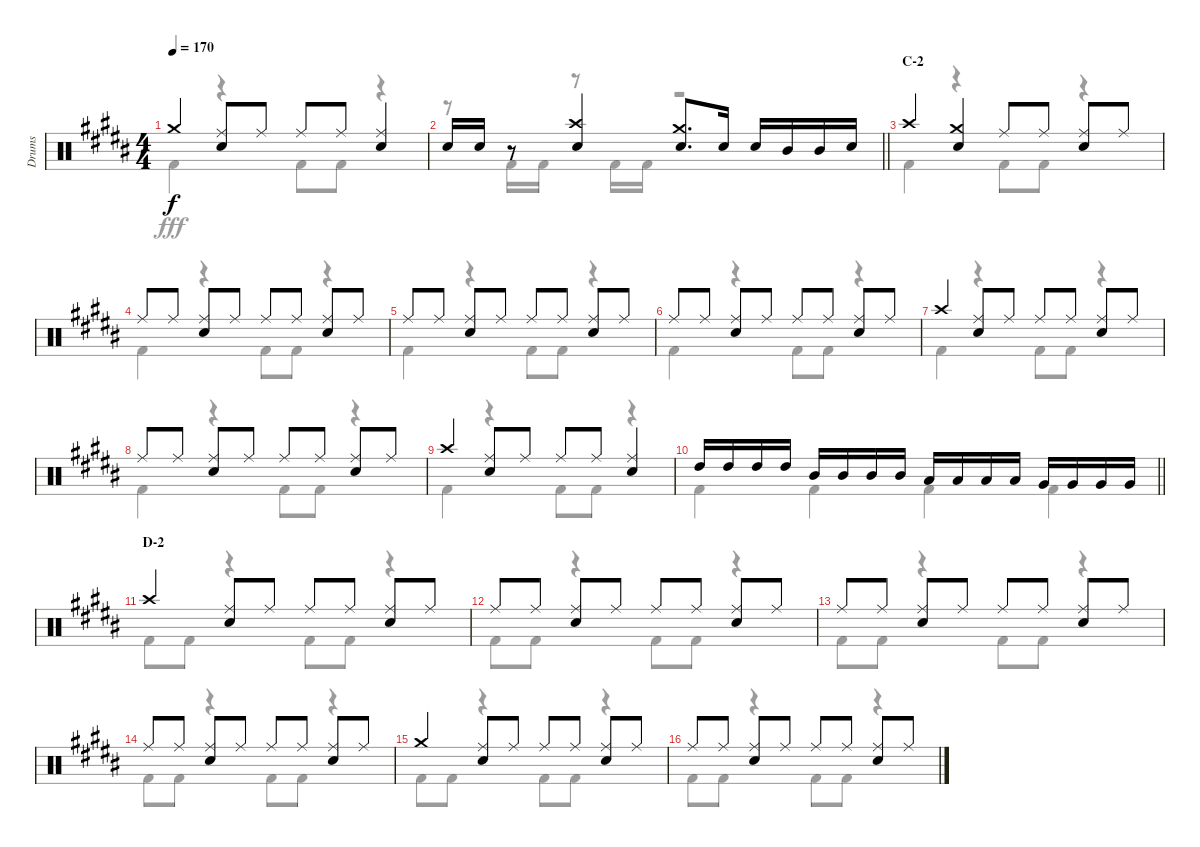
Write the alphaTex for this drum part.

\track ("Drums" "Drums") {instrument percussion}
\staff {score}
\articulation defaults
\voice
\ts (4 4)
\tempo 170
\clef neutral
\ks b "Crash medium (hit)".4{dy f}
("Ride (middle)" "Snare (hit) 2").8 "Ride (middle)".8 "Ride (middle)".8 "Ride (middle)".8 ("Ride (middle)" "Snare (hit) 2").4 |
\barLineRight lightlight "Snare (hit) 2".16 "Snare (hit) 2".16
r.8 ("Crash high (hit)" "Snare (hit) 2").4 ("Crash medium (hit)" "Snare (hit) 2").8{d} "Snare (hit) 2".16 "Snare (hit) 2".16 "Mid Tom (hit)".16 "Mid Tom (hit)".16 "Snare (hit) 2".16 |
\section ("" "C-2")
"Crash high (hit)".4 ("Crash medium (hit)" "Snare (hit) 2").4 "Ride (middle)".8 "Ride (middle)".8 ("Ride (middle)" "Snare (hit) 2").8 "Ride (middle)".8 |
"Ride (middle)".8 "Ride (middle)".8 ("Ride (middle)" "Snare (hit) 2").8 "Ride (middle)".8 "Ride (middle)".8 "Ride (middle)".8 ("Ride (middle)" "Snare (hit) 2").8 "Ride (middle)".8 |
"Ride (middle)".8 "Ride (middle)".8 ("Ride (middle)" "Snare (hit) 2").8 "Ride (middle)".8 "Ride (middle)".8 "Ride (middle)".8 ("Ride (middle)" "Snare (hit) 2").8 "Ride (middle)".8 |
"Ride (middle)".8 "Ride (middle)".8 ("Ride (middle)" "Snare (hit) 2").8 "Ride (middle)".8 "Ride (middle)".8 "Ride (middle)".8 ("Ride (middle)" "Snare (hit) 2").8 "Ride (middle)".8 |
"Crash high (hit)".4 ("Ride (middle)" "Snare (hit) 2").8 "Ride (middle)".8 "Ride (middle)".8 "Ride (middle)".8 ("Ride (middle)" "Snare (hit) 2").8 "Ride (middle)".8 |
"Ride (middle)".8 "Ride (middle)".8 ("Ride (middle)" "Snare (hit) 2").8 "Ride (middle)".8 "Ride (middle)".8 "Ride (middle)".8 ("Ride (middle)" "Snare (hit) 2").8 "Ride (middle)".8 |
"Crash high (hit)".4 ("Ride (middle)" "Snare (hit) 2").8 "Ride (middle)".8 "Ride (middle)".8 "Ride (middle)".8 ("Ride (middle)" "Snare (hit) 2").4 |
\barLineRight lightlight "High Tom (hit)".16 "High Tom (hit)".16 "High Tom (hit)".16 "High Tom (hit)".16 "Mid Tom (hit)".16 "Mid Tom (hit)".16 "Mid Tom (hit)".16 "Mid Tom (hit)".16 "Low Tom (hit)".16 "Low Tom (hit)".16 "Low Tom (hit)".16 "Low Tom (hit)".16 "Very Low Tom (hit)".16 "Very Low Tom (hit)".16 "Very Low Tom (hit)".16 "Very Low Tom (hit)".16
|
\section ("" "D-2")
"Crash high (hit)".4 ("Ride (middle)" "Snare (hit) 2").8 "Ride (middle)".8 "Ride (middle)".8 "Ride (middle)".8 ("Ride (middle)" "Snare (hit) 2").8 "Ride (middle)".8 |
"Ride (middle)".8 "Ride (middle)".8 ("Ride (middle)" "Snare (hit) 2").8 "Ride (middle)".8 "Ride (middle)".8 "Ride (middle)".8 ("Ride (middle)" "Snare (hit) 2").8 "Ride (middle)".8 |
"Ride (middle)".8 "Ride (middle)".8 ("Ride (middle)" "Snare (hit) 2").8 "Ride (middle)".8 "Ride (middle)".8 "Ride (middle)".8 ("Ride (middle)" "Snare (hit) 2").8 "Ride (middle)".8 |
"Ride (middle)".8 "Ride (middle)".8 ("Ride (middle)" "Snare (hit) 2").8 "Ride (middle)".8 "Ride (middle)".8 "Ride (middle)".8 ("Ride (middle)" "Snare (hit) 2").8 "Ride (middle)".8 |
"Crash medium (hit)".4 ("Ride (middle)" "Snare (hit) 2").8 "Ride (middle)".8 "Ride (middle)".8 "Ride (middle)".8 ("Ride (middle)" "Snare (hit) 2").8 "Ride (middle)".8 |
"Ride (middle)".8 "Ride (middle)".8 ("Ride (middle)" "Snare (hit) 2").8 "Ride (middle)".8 "Ride (middle)".8 "Ride (middle)".8 ("Ride (middle)" "Snare (hit) 2").8 "Ride (middle)".8
\voice
\clef neutral
\ottava regular
\simile none
\ks b "Kick (hit) 2".4{dy fff}
r.4 "Kick (hit) 2".8 "Kick (hit) 2".8 r.4 |
\barLineRight lightlight
r.8 "Kick (hit) 2".16 "Kick (hit) 2".16 r.8 "Kick (hit) 2".16 "Kick (hit) 2".16 r.2 |
"Kick (hit) 2".4 r.4 "Kick (hit) 2".8 "Kick (hit) 2".8 r.4 |
"Kick (hit) 2".4 r.4 "Kick (hit) 2".8 "Kick (hit) 2".8 r.4 |
"Kick (hit) 2".4 r.4 "Kick (hit) 2".8 "Kick (hit) 2".8 r.4 |
"Kick (hit) 2".4 r.4 "Kick (hit) 2".8 "Kick (hit) 2".8 r.4 |
"Kick (hit) 2".4 r.4 "Kick (hit) 2".8 "Kick (hit) 2".8 r.4 |
"Kick (hit) 2".4 r.4 "Kick (hit) 2".8 "Kick (hit) 2".8 r.4 |
"Kick (hit) 2".4 r.4 "Kick (hit) 2".8 "Kick (hit) 2".8 r.4 |
\barLineRight lightlight "Kick (hit) 2".4 "Kick (hit) 2".4 "Kick (hit) 2".4 "Kick (hit) 2".4
|
"Kick (hit) 2".8 "Kick (hit) 2".8 r.4 "Kick (hit) 2".8 "Kick (hit) 2".8 r.4 |
"Kick (hit) 2".8 "Kick (hit) 2".8 r.4 "Kick (hit) 2".8 "Kick (hit) 2".8 r.4 |
"Kick (hit) 2".8 "Kick (hit) 2".8 r.4 "Kick (hit) 2".8 "Kick (hit) 2".8 r.4 |
"Kick (hit) 2".8 "Kick (hit) 2".8 r.4 "Kick (hit) 2".8 "Kick (hit) 2".8 r.4 |
"Kick (hit) 2".8 "Kick (hit) 2".8 r.4 "Kick (hit) 2".8 "Kick (hit) 2".8 r.4 |
"Kick (hit) 2".8 "Kick (hit) 2".8 r.4 "Kick (hit) 2".8 "Kick (hit) 2".8 r.4
